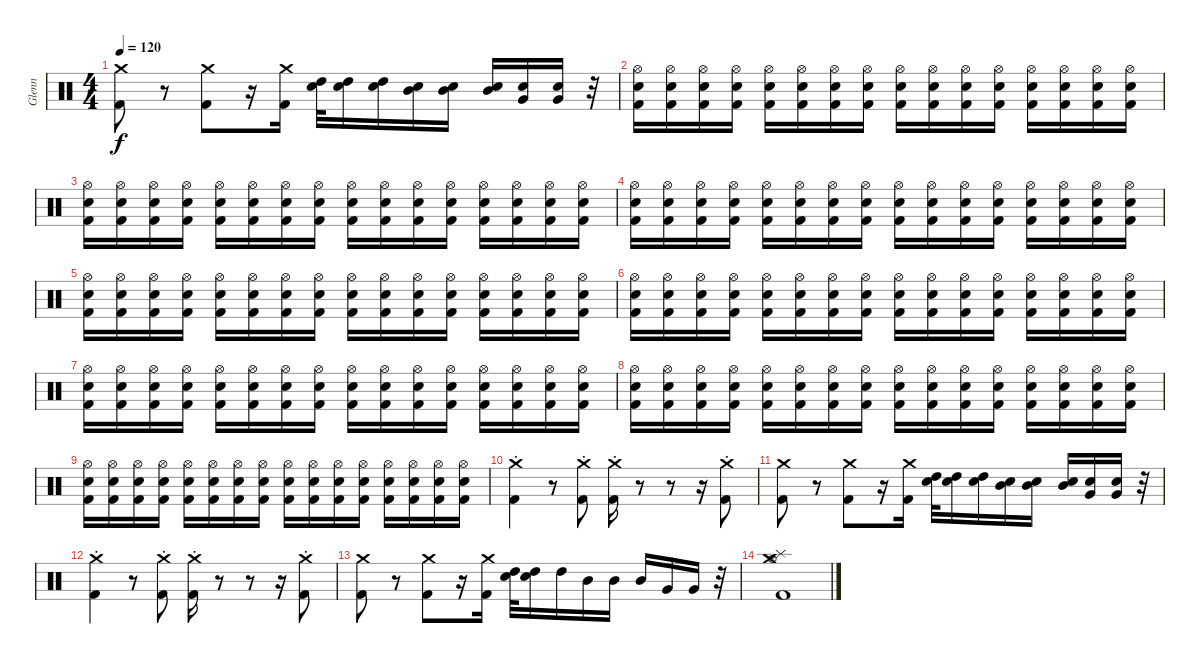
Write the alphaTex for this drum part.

\track ("Glenn" "Glenn") {instrument percussion}
\staff {score}
\articulation defaults
\ts (4 4)
\tempo 120
\clef neutral
\ks c
("Crash medium (hit)" "Kick (hit) 2").8{dy f} r.8 ("Crash medium (hit)" "Kick (hit) 2").8 r.16 ("Crash medium (hit)" "Kick (hit) 2").16 ("High Tom (hit)" "Electric Snare (hit)").32 ("High Tom (hit)" "Electric Snare (hit)").16 ("High Tom (hit)" "Electric Snare (hit)").16 ("Mid Tom (hit)" "Electric Snare (hit)").16 ("Mid Tom (hit)" "Electric Snare (hit)").16 ("Mid Tom (hit)" "Electric Snare (hit)").16 ("Very Low Tom (hit)" "Electric Snare (hit)").16 ("Very Low Tom (hit)" "Electric Snare (hit)").16 r.32 |
("Hi-Hat (open)" "Electric Snare (hit)" "Kick (hit) 2").16 ("Hi-Hat (open)" "Electric Snare (hit)" "Kick (hit) 2").16 ("Hi-Hat (open)" "Electric Snare (hit)" "Kick (hit) 2").16 ("Hi-Hat (open)" "Electric Snare (hit)" "Kick (hit) 2").16 ("Hi-Hat (open)" "Electric Snare (hit)" "Kick (hit) 2").16 ("Hi-Hat (open)" "Electric Snare (hit)" "Kick (hit) 2").16 ("Hi-Hat (open)" "Electric Snare (hit)" "Kick (hit) 2").16 ("Hi-Hat (open)" "Electric Snare (hit)" "Kick (hit) 2").16 ("Hi-Hat (open)" "Electric Snare (hit)" "Kick (hit) 2").16 ("Hi-Hat (open)" "Electric Snare (hit)" "Kick (hit) 2").16 ("Hi-Hat (open)" "Electric Snare (hit)" "Kick (hit) 2").16 ("Hi-Hat (open)" "Electric Snare (hit)" "Kick (hit) 2").16 ("Hi-Hat (open)" "Electric Snare (hit)" "Kick (hit) 2").16 ("Hi-Hat (open)" "Electric Snare (hit)" "Kick (hit) 2").16 ("Hi-Hat (open)" "Electric Snare (hit)" "Kick (hit) 2").16 ("Hi-Hat (open)" "Electric Snare (hit)" "Kick (hit) 2").16 |
("Hi-Hat (open)" "Electric Snare (hit)" "Kick (hit) 2").16 ("Hi-Hat (open)" "Electric Snare (hit)" "Kick (hit) 2").16 ("Hi-Hat (open)" "Electric Snare (hit)" "Kick (hit) 2").16 ("Hi-Hat (open)" "Electric Snare (hit)" "Kick (hit) 2").16 ("Hi-Hat (open)" "Electric Snare (hit)" "Kick (hit) 2").16 ("Hi-Hat (open)" "Electric Snare (hit)" "Kick (hit) 2").16 ("Hi-Hat (open)" "Electric Snare (hit)" "Kick (hit) 2").16 ("Hi-Hat (open)" "Electric Snare (hit)" "Kick (hit) 2").16 ("Hi-Hat (open)" "Electric Snare (hit)" "Kick (hit) 2").16 ("Hi-Hat (open)" "Electric Snare (hit)" "Kick (hit) 2").16 ("Hi-Hat (open)" "Electric Snare (hit)" "Kick (hit) 2").16 ("Hi-Hat (open)" "Electric Snare (hit)" "Kick (hit) 2").16 ("Hi-Hat (open)" "Electric Snare (hit)" "Kick (hit) 2").16 ("Hi-Hat (open)" "Electric Snare (hit)" "Kick (hit) 2").16 ("Hi-Hat (open)" "Electric Snare (hit)" "Kick (hit) 2").16 ("Hi-Hat (open)" "Electric Snare (hit)" "Kick (hit) 2").16 |
("Hi-Hat (open)" "Electric Snare (hit)" "Kick (hit) 2").16 ("Hi-Hat (open)" "Electric Snare (hit)" "Kick (hit) 2").16 ("Hi-Hat (open)" "Electric Snare (hit)" "Kick (hit) 2").16 ("Hi-Hat (open)" "Electric Snare (hit)" "Kick (hit) 2").16 ("Hi-Hat (open)" "Electric Snare (hit)" "Kick (hit) 2").16 ("Hi-Hat (open)" "Electric Snare (hit)" "Kick (hit) 2").16 ("Hi-Hat (open)" "Electric Snare (hit)" "Kick (hit) 2").16 ("Hi-Hat (open)" "Electric Snare (hit)" "Kick (hit) 2").16 ("Hi-Hat (open)" "Electric Snare (hit)" "Kick (hit) 2").16 ("Hi-Hat (open)" "Electric Snare (hit)" "Kick (hit) 2").16 ("Hi-Hat (open)" "Electric Snare (hit)" "Kick (hit) 2").16 ("Hi-Hat (open)" "Electric Snare (hit)" "Kick (hit) 2").16 ("Hi-Hat (open)" "Electric Snare (hit)" "Kick (hit) 2").16 ("Hi-Hat (open)" "Electric Snare (hit)" "Kick (hit) 2").16 ("Hi-Hat (open)" "Electric Snare (hit)" "Kick (hit) 2").16 ("Hi-Hat (open)" "Electric Snare (hit)" "Kick (hit) 2").16 |
("Hi-Hat (open)" "Electric Snare (hit)" "Kick (hit) 2").16 ("Hi-Hat (open)" "Electric Snare (hit)" "Kick (hit) 2").16 ("Hi-Hat (open)" "Electric Snare (hit)" "Kick (hit) 2").16 ("Hi-Hat (open)" "Electric Snare (hit)" "Kick (hit) 2").16 ("Hi-Hat (open)" "Electric Snare (hit)" "Kick (hit) 2").16 ("Hi-Hat (open)" "Electric Snare (hit)" "Kick (hit) 2").16 ("Hi-Hat (open)" "Electric Snare (hit)" "Kick (hit) 2").16 ("Hi-Hat (open)" "Electric Snare (hit)" "Kick (hit) 2").16 ("Hi-Hat (open)" "Electric Snare (hit)" "Kick (hit) 2").16 ("Hi-Hat (open)" "Electric Snare (hit)" "Kick (hit) 2").16 ("Hi-Hat (open)" "Electric Snare (hit)" "Kick (hit) 2").16 ("Hi-Hat (open)" "Electric Snare (hit)" "Kick (hit) 2").16 ("Hi-Hat (open)" "Electric Snare (hit)" "Kick (hit) 2").16 ("Hi-Hat (open)" "Electric Snare (hit)" "Kick (hit) 2").16 ("Hi-Hat (open)" "Electric Snare (hit)" "Kick (hit) 2").16 ("Hi-Hat (open)" "Electric Snare (hit)" "Kick (hit) 2").16 |
("Hi-Hat (open)" "Electric Snare (hit)" "Kick (hit) 2").16 ("Hi-Hat (open)" "Electric Snare (hit)" "Kick (hit) 2").16 ("Hi-Hat (open)" "Electric Snare (hit)" "Kick (hit) 2").16 ("Hi-Hat (open)" "Electric Snare (hit)" "Kick (hit) 2").16 ("Hi-Hat (open)" "Electric Snare (hit)" "Kick (hit) 2").16 ("Hi-Hat (open)" "Electric Snare (hit)" "Kick (hit) 2").16 ("Hi-Hat (open)" "Electric Snare (hit)" "Kick (hit) 2").16 ("Hi-Hat (open)" "Electric Snare (hit)" "Kick (hit) 2").16 ("Hi-Hat (open)" "Electric Snare (hit)" "Kick (hit) 2").16 ("Hi-Hat (open)" "Electric Snare (hit)" "Kick (hit) 2").16 ("Hi-Hat (open)" "Electric Snare (hit)" "Kick (hit) 2").16 ("Hi-Hat (open)" "Electric Snare (hit)" "Kick (hit) 2").16 ("Hi-Hat (open)" "Electric Snare (hit)" "Kick (hit) 2").16 ("Hi-Hat (open)" "Electric Snare (hit)" "Kick (hit) 2").16 ("Hi-Hat (open)" "Electric Snare (hit)" "Kick (hit) 2").16 ("Hi-Hat (open)" "Electric Snare (hit)" "Kick (hit) 2").16 |
("Hi-Hat (open)" "Electric Snare (hit)" "Kick (hit) 2").16 ("Hi-Hat (open)" "Electric Snare (hit)" "Kick (hit) 2").16 ("Hi-Hat (open)" "Electric Snare (hit)" "Kick (hit) 2").16 ("Hi-Hat (open)" "Electric Snare (hit)" "Kick (hit) 2").16 ("Hi-Hat (open)" "Electric Snare (hit)" "Kick (hit) 2").16 ("Hi-Hat (open)" "Electric Snare (hit)" "Kick (hit) 2").16 ("Hi-Hat (open)" "Electric Snare (hit)" "Kick (hit) 2").16 ("Hi-Hat (open)" "Electric Snare (hit)" "Kick (hit) 2").16 ("Hi-Hat (open)" "Electric Snare (hit)" "Kick (hit) 2").16 ("Hi-Hat (open)" "Electric Snare (hit)" "Kick (hit) 2").16 ("Hi-Hat (open)" "Electric Snare (hit)" "Kick (hit) 2").16 ("Hi-Hat (open)" "Electric Snare (hit)" "Kick (hit) 2").16 ("Hi-Hat (open)" "Electric Snare (hit)" "Kick (hit) 2").16 ("Hi-Hat (open)" "Electric Snare (hit)" "Kick (hit) 2").16 ("Hi-Hat (open)" "Electric Snare (hit)" "Kick (hit) 2").16 ("Hi-Hat (open)" "Electric Snare (hit)" "Kick (hit) 2").16 |
("Hi-Hat (open)" "Electric Snare (hit)" "Kick (hit) 2").16 ("Hi-Hat (open)" "Electric Snare (hit)" "Kick (hit) 2").16 ("Hi-Hat (open)" "Electric Snare (hit)" "Kick (hit) 2").16 ("Hi-Hat (open)" "Electric Snare (hit)" "Kick (hit) 2").16 ("Hi-Hat (open)" "Electric Snare (hit)" "Kick (hit) 2").16 ("Hi-Hat (open)" "Electric Snare (hit)" "Kick (hit) 2").16 ("Hi-Hat (open)" "Electric Snare (hit)" "Kick (hit) 2").16 ("Hi-Hat (open)" "Electric Snare (hit)" "Kick (hit) 2").16 ("Hi-Hat (open)" "Electric Snare (hit)" "Kick (hit) 2").16 ("Hi-Hat (open)" "Electric Snare (hit)" "Kick (hit) 2").16 ("Hi-Hat (open)" "Electric Snare (hit)" "Kick (hit) 2").16 ("Hi-Hat (open)" "Electric Snare (hit)" "Kick (hit) 2").16 ("Hi-Hat (open)" "Electric Snare (hit)" "Kick (hit) 2").16 ("Hi-Hat (open)" "Electric Snare (hit)" "Kick (hit) 2").16 ("Hi-Hat (open)" "Electric Snare (hit)" "Kick (hit) 2").16 ("Hi-Hat (open)" "Electric Snare (hit)" "Kick (hit) 2").16 |
("Hi-Hat (open)" "Electric Snare (hit)" "Kick (hit) 2").16 ("Hi-Hat (open)" "Electric Snare (hit)" "Kick (hit) 2").16 ("Hi-Hat (open)" "Electric Snare (hit)" "Kick (hit) 2").16 ("Hi-Hat (open)" "Electric Snare (hit)" "Kick (hit) 2").16 ("Hi-Hat (open)" "Electric Snare (hit)" "Kick (hit) 2").16 ("Hi-Hat (open)" "Electric Snare (hit)" "Kick (hit) 2").16 ("Hi-Hat (open)" "Electric Snare (hit)" "Kick (hit) 2").16 ("Hi-Hat (open)" "Electric Snare (hit)" "Kick (hit) 2").16 ("Hi-Hat (open)" "Electric Snare (hit)" "Kick (hit) 2").16 ("Hi-Hat (open)" "Electric Snare (hit)" "Kick (hit) 2").16 ("Hi-Hat (open)" "Electric Snare (hit)" "Kick (hit) 2").16 ("Hi-Hat (open)" "Electric Snare (hit)" "Kick (hit) 2").16 ("Hi-Hat (open)" "Electric Snare (hit)" "Kick (hit) 2").16 ("Hi-Hat (open)" "Electric Snare (hit)" "Kick (hit) 2").16 ("Hi-Hat (open)" "Electric Snare (hit)" "Kick (hit) 2").16 ("Hi-Hat (open)" "Electric Snare (hit)" "Kick (hit) 2").16 |
("Crash medium (hit)"{st} "Kick (hit) 2"{st}).4 r.8 ("Crash medium (hit)"{st} "Kick (hit) 2"{st}).8 ("Crash medium (hit)"{st} "Kick (hit) 2"{st}).16 r.8 r.8 r.16 ("Crash medium (hit)"{st} "Kick (hit) 2"{st}).8 |
("Crash medium (hit)" "Kick (hit) 2").8 r.8 ("Crash medium (hit)" "Kick (hit) 2").8 r.16 ("Crash medium (hit)" "Kick (hit) 2").16 ("High Tom (hit)" "Electric Snare (hit)").32 ("High Tom (hit)" "Electric Snare (hit)").16 ("High Tom (hit)" "Electric Snare (hit)").16 ("Mid Tom (hit)" "Electric Snare (hit)").16 ("Mid Tom (hit)" "Electric Snare (hit)").16 ("Mid Tom (hit)" "Electric Snare (hit)").16 ("Very Low Tom (hit)" "Electric Snare (hit)").16 ("Very Low Tom (hit)" "Electric Snare (hit)").16 r.32 |
("Crash medium (hit)"{st} "Kick (hit) 2"{st}).4 r.8 ("Crash medium (hit)"{st} "Kick (hit) 2"{st}).8 ("Crash medium (hit)"{st} "Kick (hit) 2"{st}).16 r.8 r.8 r.16 ("Crash medium (hit)"{st} "Kick (hit) 2"{st}).8 |
("Crash medium (hit)" "Kick (hit) 2").8 r.8 ("Crash medium (hit)" "Kick (hit) 2").8 r.16 ("Crash medium (hit)" "Kick (hit) 2").16 ("High Tom (hit)" "Electric Snare (hit)").32 ("High Tom (hit)" "Electric Snare (hit)").16 "High Tom (hit)".16 "Mid Tom (hit)".16 "Mid Tom (hit)".16 "Mid Tom (hit)".16 "Very Low Tom (hit)".16 "Very Low Tom (hit)".16 r.32 |
("Splash (hit)" "Hi-Hat (open)" "Crash medium (hit)" "Kick (hit) 2").1
